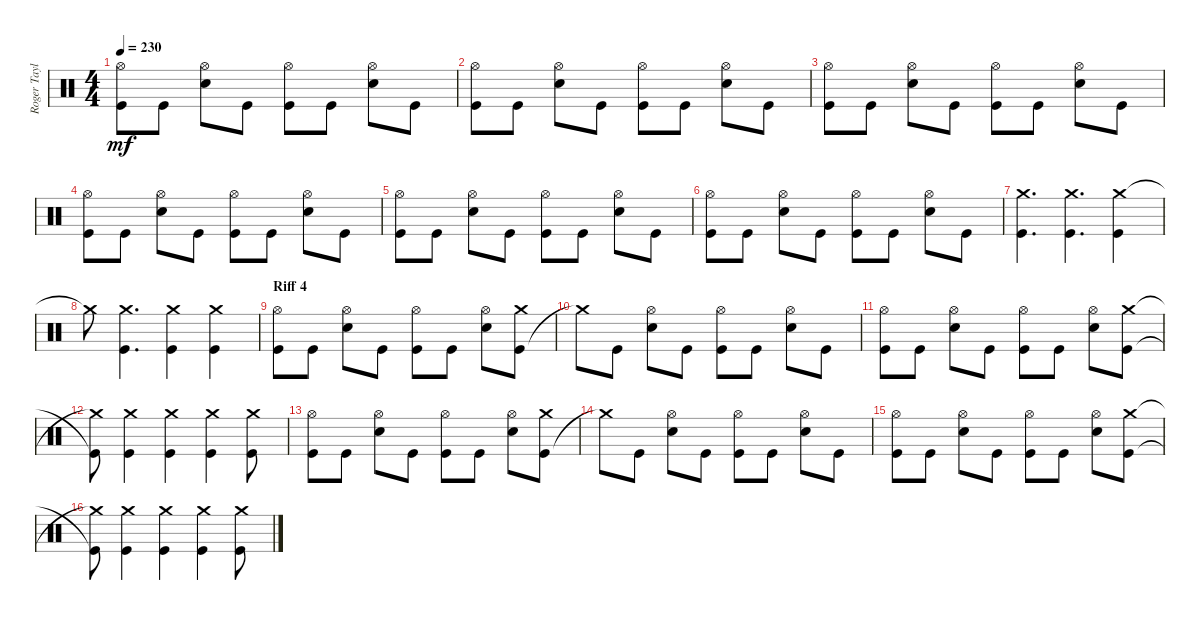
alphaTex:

\track ("Roger Taylor" "Roger Tayl") {instrument percussion}
\staff {score}
\articulation defaults
\ts (4 4)
\tempo 230
\clef neutral
\ks c
("Hi-Hat (open)" "Kick (hit)").8{dy mf} "Kick (hit)".8 ("Snare (hit) 2" "Hi-Hat (open)").8 "Kick (hit)".8 ("Kick (hit)" "Hi-Hat (open)").8 "Kick (hit)".8 ("Snare (hit) 2" "Hi-Hat (open)").8 "Kick (hit)".8 |
("Hi-Hat (open)" "Kick (hit)").8 "Kick (hit)".8 ("Snare (hit) 2" "Hi-Hat (open)").8 "Kick (hit)".8 ("Kick (hit)" "Hi-Hat (open)").8 "Kick (hit)".8 ("Snare (hit) 2" "Hi-Hat (open)").8 "Kick (hit)".8 |
("Hi-Hat (open)" "Kick (hit)").8 "Kick (hit)".8 ("Snare (hit) 2" "Hi-Hat (open)").8 "Kick (hit)".8 ("Kick (hit)" "Hi-Hat (open)").8 "Kick (hit)".8 ("Snare (hit) 2" "Hi-Hat (open)").8 "Kick (hit)".8 |
("Hi-Hat (open)" "Kick (hit)").8 "Kick (hit)".8 ("Snare (hit) 2" "Hi-Hat (open)").8 "Kick (hit)".8 ("Kick (hit)" "Hi-Hat (open)").8 "Kick (hit)".8 ("Snare (hit) 2" "Hi-Hat (open)").8 "Kick (hit)".8 |
("Hi-Hat (open)" "Kick (hit)").8 "Kick (hit)".8 ("Snare (hit) 2" "Hi-Hat (open)").8 "Kick (hit)".8 ("Kick (hit)" "Hi-Hat (open)").8 "Kick (hit)".8 ("Snare (hit) 2" "Hi-Hat (open)").8 "Kick (hit)".8 |
("Hi-Hat (open)" "Kick (hit)").8 "Kick (hit)".8 ("Snare (hit) 2" "Hi-Hat (open)").8 "Kick (hit)".8 ("Kick (hit)" "Hi-Hat (open)").8 "Kick (hit)".8 ("Snare (hit) 2" "Hi-Hat (open)").8 "Kick (hit)".8 |
("Kick (hit)" "Crash medium (hit)").4{d} ("Crash medium (hit)" "Kick (hit)").4{d} ("Crash medium (hit)" "Kick (hit)").4 |
"Crash medium (hit)"{t}.8 ("Crash medium (hit)" "Kick (hit)").4{d} ("Crash medium (hit)" "Kick (hit)").4 ("Crash medium (hit)" "Kick (hit)").4 |
\section ("" "Riff 4")
("Hi-Hat (open)" "Kick (hit)").8 "Kick (hit)".8 ("Hi-Hat (open)" "Snare (hit) 2").8 "Kick (hit)".8 ("Kick (hit)" "Hi-Hat (open)").8 "Kick (hit)".8 ("Hi-Hat (open)" "Snare (hit) 2").8 ("Kick (hit)" "Crash medium (hit)").8 |
"Crash medium (hit)"{t}.8 "Kick (hit)".8 ("Snare (hit) 2" "Hi-Hat (open)").8 "Kick (hit)".8 ("Kick (hit)" "Hi-Hat (open)").8 "Kick (hit)".8 ("Snare (hit) 2" "Hi-Hat (open)").8 "Kick (hit)".8 |
("Hi-Hat (open)" "Kick (hit)").8 "Kick (hit)".8 ("Snare (hit) 2" "Hi-Hat (open)").8 "Kick (hit)".8 ("Kick (hit)" "Hi-Hat (open)").8 "Kick (hit)".8 ("Snare (hit) 2" "Hi-Hat (open)").8 ("Kick (hit)" "Crash medium (hit)").8 |
("Crash medium (hit)"{t} "Kick (hit)"{t}).8 ("Crash medium (hit)" "Kick (hit)").4 ("Crash medium (hit)" "Kick (hit)").4 ("Crash medium (hit)" "Kick (hit)").4 ("Crash medium (hit)" "Kick (hit)").8 |
("Hi-Hat (open)" "Kick (hit)").8 "Kick (hit)".8 ("Hi-Hat (open)" "Snare (hit) 2").8 "Kick (hit)".8 ("Kick (hit)" "Hi-Hat (open)").8 "Kick (hit)".8 ("Hi-Hat (open)" "Snare (hit) 2").8 ("Kick (hit)" "Crash medium (hit)").8 |
"Crash medium (hit)"{t}.8 "Kick (hit)".8 ("Snare (hit) 2" "Hi-Hat (open)").8 "Kick (hit)".8 ("Kick (hit)" "Hi-Hat (open)").8 "Kick (hit)".8 ("Snare (hit) 2" "Hi-Hat (open)").8 "Kick (hit)".8 |
("Hi-Hat (open)" "Kick (hit)").8 "Kick (hit)".8 ("Snare (hit) 2" "Hi-Hat (open)").8 "Kick (hit)".8 ("Kick (hit)" "Hi-Hat (open)").8 "Kick (hit)".8 ("Snare (hit) 2" "Hi-Hat (open)").8 ("Kick (hit)" "Crash medium (hit)").8 |
("Crash medium (hit)"{t} "Kick (hit)"{t}).8 ("Crash medium (hit)" "Kick (hit)").4 ("Crash medium (hit)" "Kick (hit)").4 ("Crash medium (hit)" "Kick (hit)").4 ("Crash medium (hit)" "Kick (hit)").8
